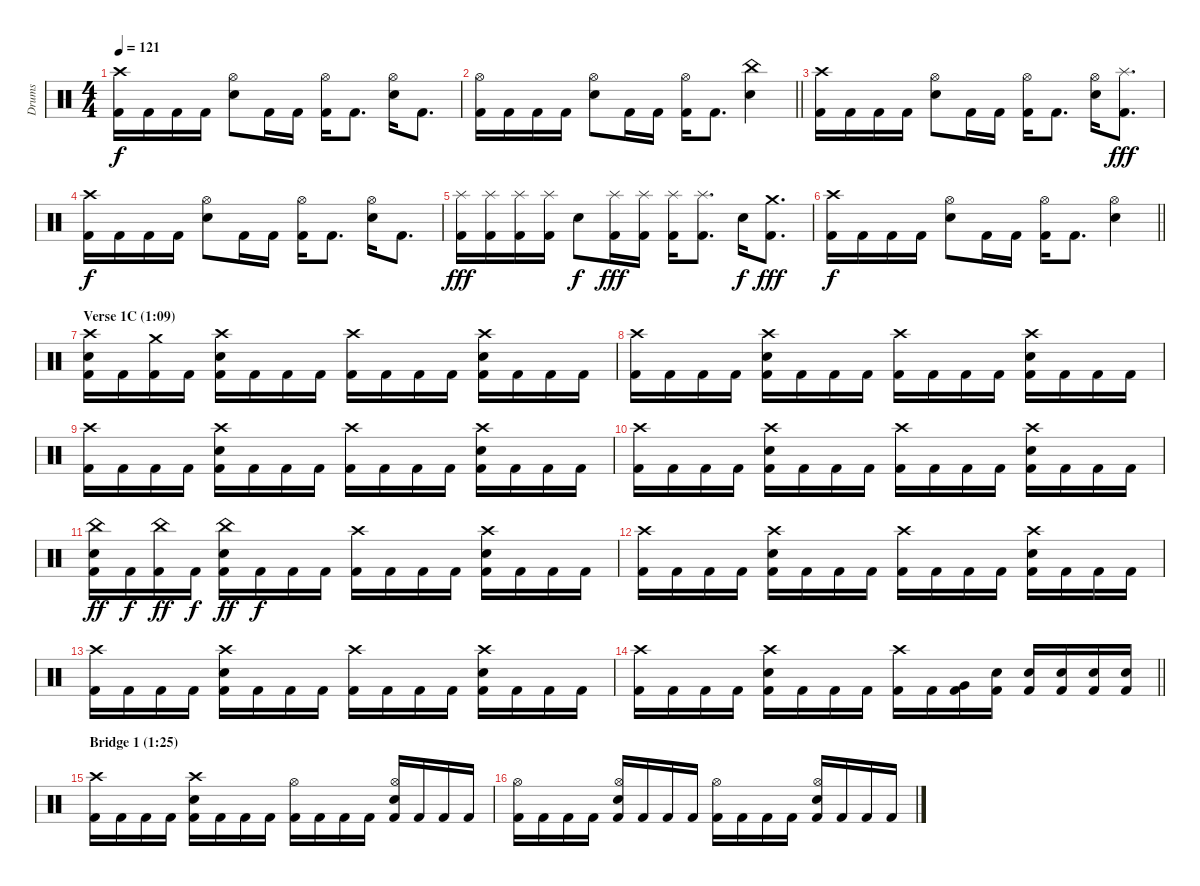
\track ("Drums" "Drums") {instrument percussion}
\staff {score}
\articulation defaults
\ts (4 4)
\tempo 121
\clef neutral
\ks c
("Crash high (hit)" "Kick (hit) 2").16{dy f} "Kick (hit) 2".16 "Kick (hit) 2".16 "Kick (hit) 2".16 ("Hi-Hat (open)" "Electric Snare (hit)").8 "Kick (hit) 2".16 "Kick (hit) 2".16 ("Hi-Hat (open)" "Kick (hit) 2").16 "Kick (hit) 2".8{d} ("Hi-Hat (open)" "Electric Snare (hit)").16 "Kick (hit) 2".8{d} |
\barLineRight lightlight
("Hi-Hat (open)" "Kick (hit) 2").16 "Kick (hit) 2".16 "Kick (hit) 2".16 "Kick (hit) 2".16 ("Hi-Hat (open)" "Electric Snare (hit)").8 "Kick (hit) 2".16 "Kick (hit) 2".16 ("Hi-Hat (open)" "Kick (hit) 2").16 "Kick (hit) 2".8{d} ("China (hit)" "Electric Snare (hit)").4 |
("Crash high (hit)" "Kick (hit) 2").16 "Kick (hit) 2".16 "Kick (hit) 2".16 "Kick (hit) 2".16 ("Hi-Hat (open)" "Electric Snare (hit)").8 "Kick (hit) 2".16 "Kick (hit) 2".16 ("Hi-Hat (open)" "Kick (hit) 2").16 "Kick (hit) 2".8{d} ("Hi-Hat (open)" "Electric Snare (hit)").16 ("Splash (hit)" "Kick (hit) 2").8{d dy fff} |
("Crash high (hit)" "Kick (hit) 2").16{dy f} "Kick (hit) 2".16 "Kick (hit) 2".16 "Kick (hit) 2".16 ("Hi-Hat (open)" "Electric Snare (hit)").8 "Kick (hit) 2".16 "Kick (hit) 2".16 ("Hi-Hat (open)" "Kick (hit) 2").16 "Kick (hit) 2".8{d} ("Hi-Hat (open)" "Electric Snare (hit)").16 "Kick (hit) 2".8{d} |
("Splash (hit)" "Kick (hit) 2").16{dy fff} ("Splash (hit)" "Kick (hit) 2").16 ("Splash (hit)" "Kick (hit) 2").16 ("Splash (hit)" "Kick (hit) 2").16 "Electric Snare (hit)".8{dy f} ("Splash (hit)" "Kick (hit) 2").16{dy fff} ("Splash (hit)" "Kick (hit) 2").16 ("Splash (hit)" "Kick (hit) 2").16 ("Splash (hit)" "Kick (hit) 2").8{d} "Electric Snare (hit)".16{dy f} ("Crash medium (hit)" "Kick (hit) 2").8{d dy fff} |
\barLineRight lightlight
("Crash high (hit)" "Kick (hit) 2").16{dy f} "Kick (hit) 2".16 "Kick (hit) 2".16 "Kick (hit) 2".16 ("Hi-Hat (open)" "Electric Snare (hit)").8 "Kick (hit) 2".16 "Kick (hit) 2".16 ("Hi-Hat (open)" "Kick (hit) 2").16 "Kick (hit) 2".8{d} ("Hi-Hat (open)" "Electric Snare (hit)").4 |
\section ("" "Verse 1C (1:09)")
("Crash high (hit)" "Electric Snare (hit)" "Kick (hit) 2").16 "Kick (hit) 2".16 ("Crash medium (hit)" "Kick (hit) 2").16 "Kick (hit) 2".16 ("Crash high (hit)" "Electric Snare (hit)" "Kick (hit) 2").16 "Kick (hit) 2".16 "Kick (hit) 2".16 "Kick (hit) 2".16 ("Crash high (hit)" "Kick (hit) 2").16 "Kick (hit) 2".16 "Kick (hit) 2".16 "Kick (hit) 2".16 ("Crash high (hit)" "Electric Snare (hit)" "Kick (hit) 2").16 "Kick (hit) 2".16 "Kick (hit) 2".16 "Kick (hit) 2".16 |
("Crash high (hit)" "Kick (hit) 2").16 "Kick (hit) 2".16 "Kick (hit) 2".16 "Kick (hit) 2".16 ("Crash high (hit)" "Electric Snare (hit)" "Kick (hit) 2").16 "Kick (hit) 2".16 "Kick (hit) 2".16 "Kick (hit) 2".16 ("Crash high (hit)" "Kick (hit) 2").16 "Kick (hit) 2".16 "Kick (hit) 2".16 "Kick (hit) 2".16 ("Crash high (hit)" "Electric Snare (hit)" "Kick (hit) 2").16 "Kick (hit) 2".16 "Kick (hit) 2".16 "Kick (hit) 2".16 |
("Crash high (hit)" "Kick (hit) 2").16 "Kick (hit) 2".16 "Kick (hit) 2".16 "Kick (hit) 2".16 ("Crash high (hit)" "Electric Snare (hit)" "Kick (hit) 2").16 "Kick (hit) 2".16 "Kick (hit) 2".16 "Kick (hit) 2".16 ("Crash high (hit)" "Kick (hit) 2").16 "Kick (hit) 2".16 "Kick (hit) 2".16 "Kick (hit) 2".16 ("Crash high (hit)" "Electric Snare (hit)" "Kick (hit) 2").16 "Kick (hit) 2".16 "Kick (hit) 2".16 "Kick (hit) 2".16 |
("Crash high (hit)" "Kick (hit) 2").16 "Kick (hit) 2".16 "Kick (hit) 2".16 "Kick (hit) 2".16 ("Crash high (hit)" "Electric Snare (hit)" "Kick (hit) 2").16 "Kick (hit) 2".16 "Kick (hit) 2".16 "Kick (hit) 2".16 ("Crash high (hit)" "Kick (hit) 2").16 "Kick (hit) 2".16 "Kick (hit) 2".16 "Kick (hit) 2".16 ("Crash high (hit)" "Electric Snare (hit)" "Kick (hit) 2").16 "Kick (hit) 2".16 "Kick (hit) 2".16 "Kick (hit) 2".16 |
("China (hit)" "Electric Snare (hit)" "Kick (hit) 2").16{dy ff} "Kick (hit) 2".16{dy f} ("China (hit)" "Kick (hit) 2").16{dy ff} "Kick (hit) 2".16{dy f} ("China (hit)" "Electric Snare (hit)" "Kick (hit) 2").16{dy ff} "Kick (hit) 2".16{dy f} "Kick (hit) 2".16 "Kick (hit) 2".16 ("Crash high (hit)" "Kick (hit) 2").16 "Kick (hit) 2".16 "Kick (hit) 2".16 "Kick (hit) 2".16 ("Crash high (hit)" "Electric Snare (hit)" "Kick (hit) 2").16 "Kick (hit) 2".16 "Kick (hit) 2".16 "Kick (hit) 2".16 |
("Crash high (hit)" "Kick (hit) 2").16 "Kick (hit) 2".16 "Kick (hit) 2".16 "Kick (hit) 2".16 ("Crash high (hit)" "Electric Snare (hit)" "Kick (hit) 2").16 "Kick (hit) 2".16 "Kick (hit) 2".16 "Kick (hit) 2".16 ("Crash high (hit)" "Kick (hit) 2").16 "Kick (hit) 2".16 "Kick (hit) 2".16 "Kick (hit) 2".16 ("Crash high (hit)" "Electric Snare (hit)" "Kick (hit) 2").16 "Kick (hit) 2".16 "Kick (hit) 2".16 "Kick (hit) 2".16 |
("Crash high (hit)" "Kick (hit) 2").16 "Kick (hit) 2".16 "Kick (hit) 2".16 "Kick (hit) 2".16 ("Crash high (hit)" "Electric Snare (hit)" "Kick (hit) 2").16 "Kick (hit) 2".16 "Kick (hit) 2".16 "Kick (hit) 2".16 ("Crash high (hit)" "Kick (hit) 2").16 "Kick (hit) 2".16 "Kick (hit) 2".16 "Kick (hit) 2".16 ("Crash high (hit)" "Electric Snare (hit)" "Kick (hit) 2").16 "Kick (hit) 2".16 "Kick (hit) 2".16 "Kick (hit) 2".16 |
\barLineRight lightlight
("Crash high (hit)" "Kick (hit) 2").16 "Kick (hit) 2".16 "Kick (hit) 2".16 "Kick (hit) 2".16 ("Crash high (hit)" "Electric Snare (hit)" "Kick (hit) 2").16 "Kick (hit) 2".16 "Kick (hit) 2".16 "Kick (hit) 2".16 ("Crash high (hit)" "Kick (hit) 2").16 "Kick (hit) 2".16 ("Very Low Tom (hit)" "Kick (hit) 2").16 ("Electric Snare (hit)" "Kick (hit) 2").16 ("Electric Snare (hit)" "Kick (hit) 2").16 ("Electric Snare (hit)" "Kick (hit) 2").16 ("Electric Snare (hit)" "Kick (hit) 2").16 ("Electric Snare (hit)" "Kick (hit) 2").16 |
\section ("" "Bridge 1 (1:25)")
("Crash high (hit)" "Kick (hit) 2").16 "Kick (hit) 2".16 "Kick (hit) 2".16 "Kick (hit) 2".16 ("Crash high (hit)" "Electric Snare (hit)" "Kick (hit) 2").16 "Kick (hit) 2".16 "Kick (hit) 2".16 "Kick (hit) 2".16 ("Hi-Hat (open)" "Kick (hit) 2").16 "Kick (hit) 2".16 "Kick (hit) 2".16 "Kick (hit) 2".16 ("Hi-Hat (open)" "Electric Snare (hit)" "Kick (hit) 2").16 "Kick (hit) 2".16 "Kick (hit) 2".16 "Kick (hit) 2".16 |
("Hi-Hat (open)" "Kick (hit) 2").16 "Kick (hit) 2".16 "Kick (hit) 2".16 "Kick (hit) 2".16 ("Hi-Hat (open)" "Electric Snare (hit)" "Kick (hit) 2").16 "Kick (hit) 2".16 "Kick (hit) 2".16 "Kick (hit) 2".16 ("Hi-Hat (open)" "Kick (hit) 2").16 "Kick (hit) 2".16 "Kick (hit) 2".16 "Kick (hit) 2".16 ("Hi-Hat (open)" "Electric Snare (hit)" "Kick (hit) 2").16 "Kick (hit) 2".16 "Kick (hit) 2".16 "Kick (hit) 2".16
